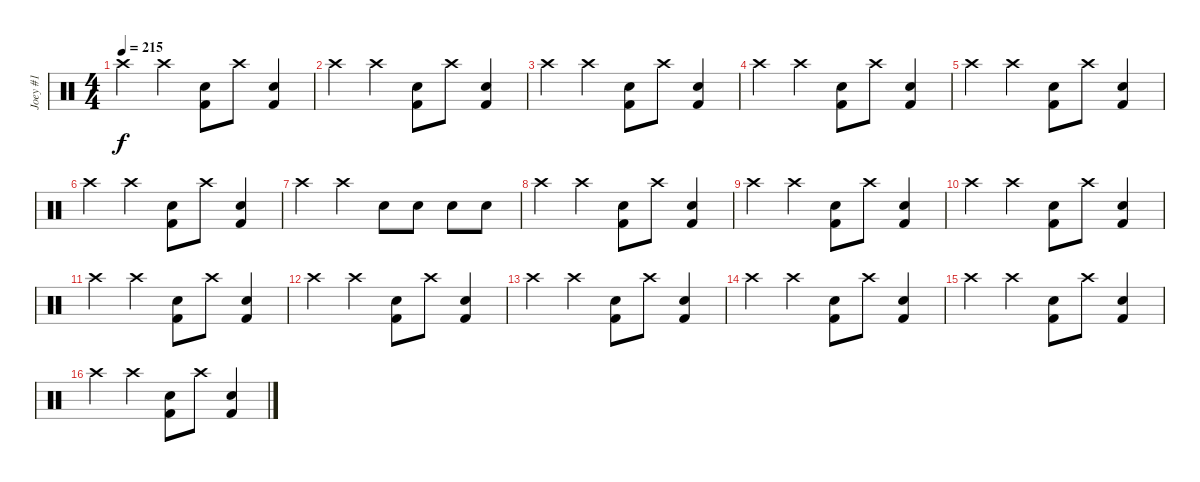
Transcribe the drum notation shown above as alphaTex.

\track ("Joey #1" "Joey #1") {instrument percussion}
\staff {score}
\articulation defaults
\ts (4 4)
\tempo 215
\clef neutral
\ks c "Crash high (hit)".4{dy f} "Crash high (hit)".4
("Kick (hit) 2" "Snare (hit) 2").8 "Crash high (hit)".8 ("Kick (hit) 2" "Snare (hit) 2").4 |
"Crash high (hit)".4 "Crash high (hit)".4 ("Kick (hit) 2" "Snare (hit) 2").8 "Crash high (hit)".8 ("Kick (hit) 2" "Snare (hit) 2").4 |
"Crash high (hit)".4 "Crash high (hit)".4 ("Kick (hit) 2" "Snare (hit) 2").8 "Crash high (hit)".8 ("Kick (hit) 2" "Snare (hit) 2").4 |
"Crash high (hit)".4 "Crash high (hit)".4 ("Kick (hit) 2" "Snare (hit) 2").8 "Crash high (hit)".8 ("Kick (hit) 2" "Snare (hit) 2").4 |
"Crash high (hit)".4 "Crash high (hit)".4 ("Kick (hit) 2" "Snare (hit) 2").8 "Crash high (hit)".8 ("Kick (hit) 2" "Snare (hit) 2").4 |
"Crash high (hit)".4 "Crash high (hit)".4 ("Kick (hit) 2" "Snare (hit) 2").8 "Crash high (hit)".8 ("Kick (hit) 2" "Snare (hit) 2").4 |
"Crash high (hit)".4 "Crash high (hit)".4 "Snare (hit) 2".8 "Snare (hit) 2".8 "Snare (hit) 2".8 "Snare (hit) 2".8 |
"Crash high (hit)".4 "Crash high (hit)".4 ("Kick (hit) 2" "Snare (hit) 2").8 "Crash high (hit)".8 ("Kick (hit) 2" "Snare (hit) 2").4 |
"Crash high (hit)".4 "Crash high (hit)".4 ("Kick (hit) 2" "Snare (hit) 2").8 "Crash high (hit)".8 ("Kick (hit) 2" "Snare (hit) 2").4 |
"Crash high (hit)".4 "Crash high (hit)".4 ("Kick (hit) 2" "Snare (hit) 2").8 "Crash high (hit)".8 ("Kick (hit) 2" "Snare (hit) 2").4 |
"Crash high (hit)".4 "Crash high (hit)".4 ("Kick (hit) 2" "Snare (hit) 2").8 "Crash high (hit)".8 ("Kick (hit) 2" "Snare (hit) 2").4 |
"Crash high (hit)".4 "Crash high (hit)".4 ("Kick (hit) 2" "Snare (hit) 2").8 "Crash high (hit)".8 ("Kick (hit) 2" "Snare (hit) 2").4 |
"Crash high (hit)".4 "Crash high (hit)".4 ("Kick (hit) 2" "Snare (hit) 2").8 "Crash high (hit)".8 ("Kick (hit) 2" "Snare (hit) 2").4 |
"Crash high (hit)".4 "Crash high (hit)".4 ("Kick (hit) 2" "Snare (hit) 2").8 "Crash high (hit)".8 ("Kick (hit) 2" "Snare (hit) 2").4 |
"Crash high (hit)".4 "Crash high (hit)".4 ("Kick (hit) 2" "Snare (hit) 2").8 "Crash high (hit)".8 ("Kick (hit) 2" "Snare (hit) 2").4 |
"Crash high (hit)".4 "Crash high (hit)".4 ("Kick (hit) 2" "Snare (hit) 2").8 "Crash high (hit)".8 ("Kick (hit) 2" "Snare (hit) 2").4
